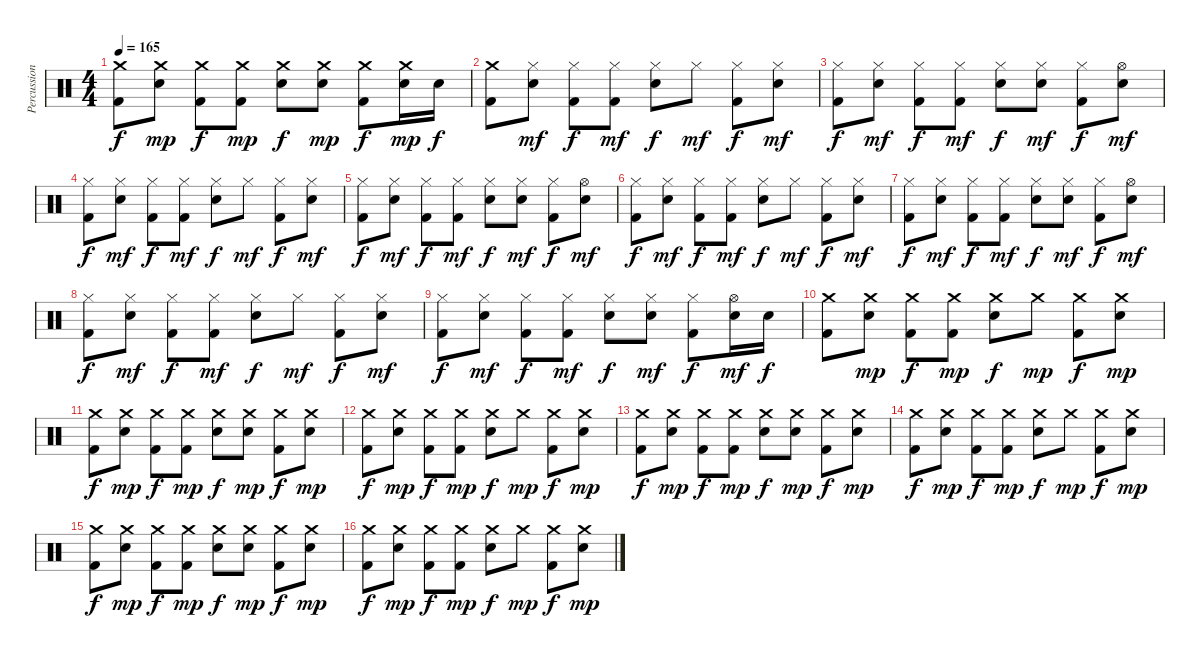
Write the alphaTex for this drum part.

\track ("Percussion" "Percussion") {instrument percussion}
\staff {score}
\articulation defaults
\ts (4 4)
\tempo 165
\clef neutral
\ks c
("Crash medium (hit)" "Kick (hit) 2").8{dy f} ("Crash medium (hit)" "Snare (hit) 2").8{dy mp} ("Crash medium (hit)" "Kick (hit) 2").8{dy f} ("Crash medium (hit)" "Kick (hit) 2").8{dy mp} ("Crash medium (hit)" "Snare (hit) 2").8{dy f} ("Crash medium (hit)" "Snare (hit) 2").8{dy mp} ("Crash medium (hit)" "Kick (hit) 2").8{dy f} ("Crash medium (hit)" "Snare (hit) 2").16{dy mp} "Snare (hit) 2".16{dy f} |
("Crash medium (hit)" "Kick (hit) 2").8 ("Hi-Hat (closed)" "Snare (hit) 2").8{dy mf} ("Hi-Hat (closed)" "Kick (hit) 2").8{dy f} ("Hi-Hat (closed)" "Kick (hit) 2").8{dy mf} ("Hi-Hat (closed)" "Snare (hit) 2").8{dy f} "Hi-Hat (closed)".8{dy mf} ("Hi-Hat (closed)" "Kick (hit) 2").8{dy f} ("Hi-Hat (closed)" "Snare (hit) 2").8{dy mf} |
("Hi-Hat (closed)" "Kick (hit) 2").8{dy f} ("Hi-Hat (closed)" "Snare (hit) 2").8{dy mf} ("Hi-Hat (closed)" "Kick (hit) 2").8{dy f} ("Hi-Hat (closed)" "Kick (hit) 2").8{dy mf} ("Hi-Hat (closed)" "Snare (hit) 2").8{dy f} ("Hi-Hat (closed)" "Snare (hit) 2").8{dy mf} ("Hi-Hat (closed)" "Kick (hit) 2").8{dy f} ("Hi-Hat (open)" "Snare (hit) 2").8{dy mf} |
("Hi-Hat (closed)" "Kick (hit) 2").8{dy f} ("Hi-Hat (closed)" "Snare (hit) 2").8{dy mf} ("Hi-Hat (closed)" "Kick (hit) 2").8{dy f} ("Hi-Hat (closed)" "Kick (hit) 2").8{dy mf} ("Hi-Hat (closed)" "Snare (hit) 2").8{dy f} "Hi-Hat (closed)".8{dy mf} ("Hi-Hat (closed)" "Kick (hit) 2").8{dy f} ("Hi-Hat (closed)" "Snare (hit) 2").8{dy mf} |
("Hi-Hat (closed)" "Kick (hit) 2").8{dy f} ("Hi-Hat (closed)" "Snare (hit) 2").8{dy mf} ("Hi-Hat (closed)" "Kick (hit) 2").8{dy f} ("Hi-Hat (closed)" "Kick (hit) 2").8{dy mf} ("Hi-Hat (closed)" "Snare (hit) 2").8{dy f} ("Hi-Hat (closed)" "Snare (hit) 2").8{dy mf} ("Hi-Hat (closed)" "Kick (hit) 2").8{dy f} ("Hi-Hat (open)" "Snare (hit) 2").8{dy mf} |
("Hi-Hat (closed)" "Kick (hit) 2").8{dy f} ("Hi-Hat (closed)" "Snare (hit) 2").8{dy mf} ("Hi-Hat (closed)" "Kick (hit) 2").8{dy f} ("Hi-Hat (closed)" "Kick (hit) 2").8{dy mf} ("Hi-Hat (closed)" "Snare (hit) 2").8{dy f} "Hi-Hat (closed)".8{dy mf} ("Hi-Hat (closed)" "Kick (hit) 2").8{dy f} ("Hi-Hat (closed)" "Snare (hit) 2").8{dy mf} |
("Hi-Hat (closed)" "Kick (hit) 2").8{dy f} ("Hi-Hat (closed)" "Snare (hit) 2").8{dy mf} ("Hi-Hat (closed)" "Kick (hit) 2").8{dy f} ("Hi-Hat (closed)" "Kick (hit) 2").8{dy mf} ("Hi-Hat (closed)" "Snare (hit) 2").8{dy f} ("Hi-Hat (closed)" "Snare (hit) 2").8{dy mf} ("Hi-Hat (closed)" "Kick (hit) 2").8{dy f} ("Hi-Hat (open)" "Snare (hit) 2").8{dy mf} |
("Hi-Hat (closed)" "Kick (hit) 2").8{dy f} ("Hi-Hat (closed)" "Snare (hit) 2").8{dy mf} ("Hi-Hat (closed)" "Kick (hit) 2").8{dy f} ("Hi-Hat (closed)" "Kick (hit) 2").8{dy mf} ("Hi-Hat (closed)" "Snare (hit) 2").8{dy f} "Hi-Hat (closed)".8{dy mf} ("Hi-Hat (closed)" "Kick (hit) 2").8{dy f} ("Hi-Hat (closed)" "Snare (hit) 2").8{dy mf} |
("Hi-Hat (closed)" "Kick (hit) 2").8{dy f} ("Hi-Hat (closed)" "Snare (hit) 2").8{dy mf} ("Hi-Hat (closed)" "Kick (hit) 2").8{dy f} ("Hi-Hat (closed)" "Kick (hit) 2").8{dy mf} ("Hi-Hat (closed)" "Snare (hit) 2").8{dy f} ("Hi-Hat (closed)" "Snare (hit) 2").8{dy mf} ("Hi-Hat (closed)" "Kick (hit) 2").8{dy f} ("Hi-Hat (open)" "Snare (hit) 2").16{dy mf} "Snare (hit) 2".16{dy f} |
("Crash medium (hit)" "Kick (hit) 2").8 ("Crash medium (hit)" "Snare (hit) 2").8{dy mp} ("Crash medium (hit)" "Kick (hit) 2").8{dy f} ("Crash medium (hit)" "Kick (hit) 2").8{dy mp} ("Crash medium (hit)" "Snare (hit) 2").8{dy f} "Crash medium (hit)".8{dy mp} ("Crash medium (hit)" "Kick (hit) 2").8{dy f} ("Crash medium (hit)" "Snare (hit) 2").8{dy mp} |
("Crash medium (hit)" "Kick (hit) 2").8{dy f} ("Crash medium (hit)" "Snare (hit) 2").8{dy mp} ("Crash medium (hit)" "Kick (hit) 2").8{dy f} ("Crash medium (hit)" "Kick (hit) 2").8{dy mp} ("Crash medium (hit)" "Snare (hit) 2").8{dy f} ("Crash medium (hit)" "Snare (hit) 2").8{dy mp} ("Crash medium (hit)" "Kick (hit) 2").8{dy f} ("Crash medium (hit)" "Snare (hit) 2").8{dy mp} |
("Crash medium (hit)" "Kick (hit) 2").8{dy f} ("Crash medium (hit)" "Snare (hit) 2").8{dy mp} ("Crash medium (hit)" "Kick (hit) 2").8{dy f} ("Crash medium (hit)" "Kick (hit) 2").8{dy mp} ("Crash medium (hit)" "Snare (hit) 2").8{dy f} "Crash medium (hit)".8{dy mp} ("Crash medium (hit)" "Kick (hit) 2").8{dy f} ("Crash medium (hit)" "Snare (hit) 2").8{dy mp} |
("Crash medium (hit)" "Kick (hit) 2").8{dy f} ("Crash medium (hit)" "Snare (hit) 2").8{dy mp} ("Crash medium (hit)" "Kick (hit) 2").8{dy f} ("Crash medium (hit)" "Kick (hit) 2").8{dy mp} ("Crash medium (hit)" "Snare (hit) 2").8{dy f} ("Crash medium (hit)" "Snare (hit) 2").8{dy mp} ("Crash medium (hit)" "Kick (hit) 2").8{dy f} ("Crash medium (hit)" "Snare (hit) 2").8{dy mp} |
("Crash medium (hit)" "Kick (hit) 2").8{dy f} ("Crash medium (hit)" "Snare (hit) 2").8{dy mp} ("Crash medium (hit)" "Kick (hit) 2").8{dy f} ("Crash medium (hit)" "Kick (hit) 2").8{dy mp} ("Crash medium (hit)" "Snare (hit) 2").8{dy f} "Crash medium (hit)".8{dy mp} ("Crash medium (hit)" "Kick (hit) 2").8{dy f} ("Crash medium (hit)" "Snare (hit) 2").8{dy mp} |
("Crash medium (hit)" "Kick (hit) 2").8{dy f} ("Crash medium (hit)" "Snare (hit) 2").8{dy mp} ("Crash medium (hit)" "Kick (hit) 2").8{dy f} ("Crash medium (hit)" "Kick (hit) 2").8{dy mp} ("Crash medium (hit)" "Snare (hit) 2").8{dy f} ("Crash medium (hit)" "Snare (hit) 2").8{dy mp} ("Crash medium (hit)" "Kick (hit) 2").8{dy f} ("Crash medium (hit)" "Snare (hit) 2").8{dy mp} |
("Crash medium (hit)" "Kick (hit) 2").8{dy f} ("Crash medium (hit)" "Snare (hit) 2").8{dy mp} ("Crash medium (hit)" "Kick (hit) 2").8{dy f} ("Crash medium (hit)" "Kick (hit) 2").8{dy mp} ("Crash medium (hit)" "Snare (hit) 2").8{dy f} "Crash medium (hit)".8{dy mp} ("Crash medium (hit)" "Kick (hit) 2").8{dy f} ("Crash medium (hit)" "Snare (hit) 2").8{dy mp}
